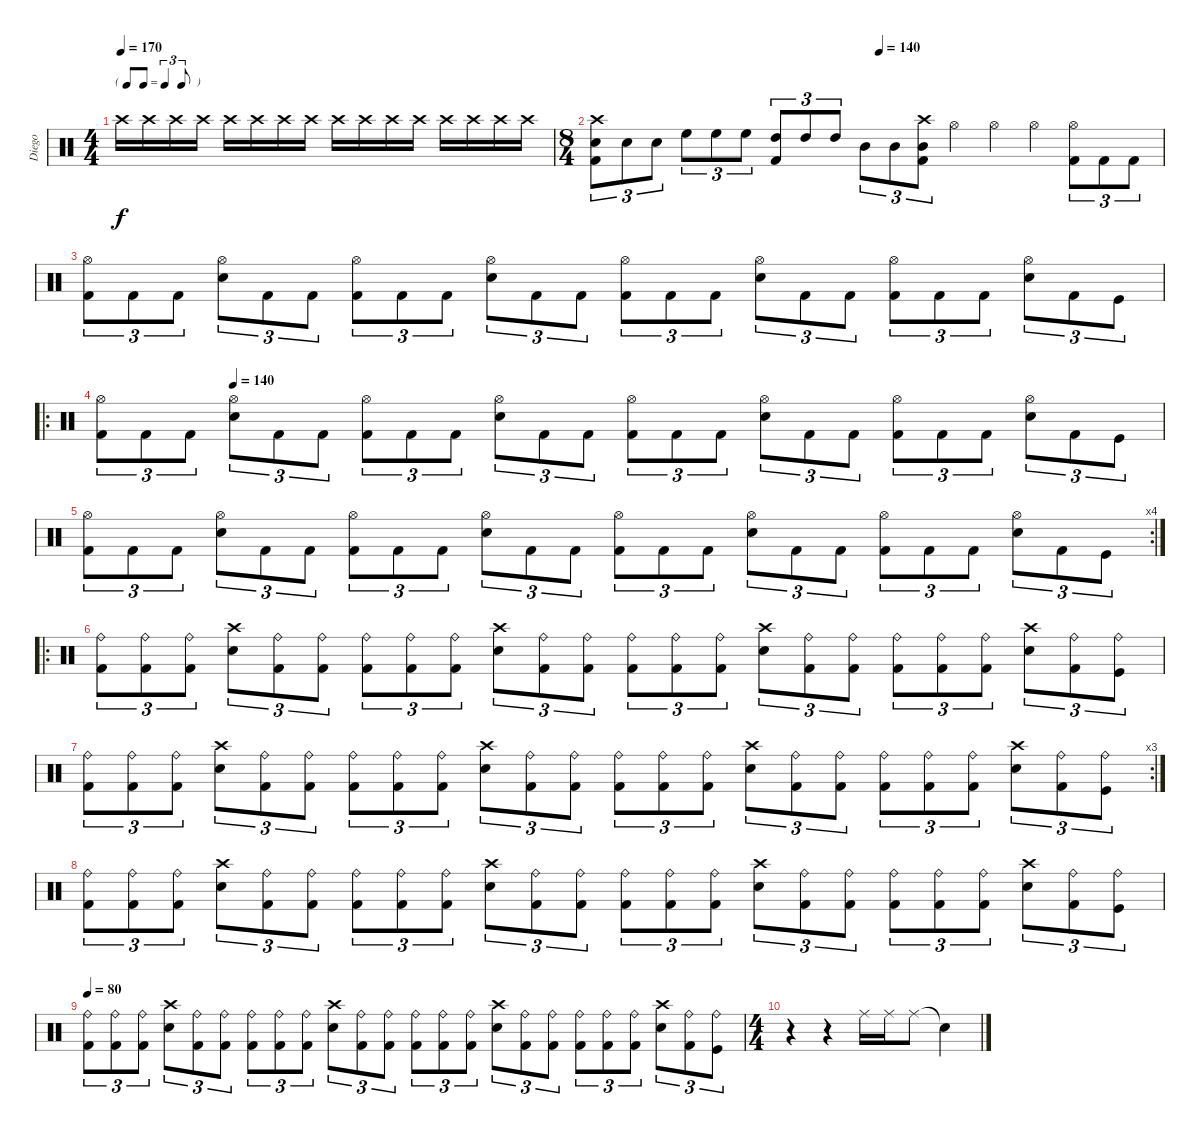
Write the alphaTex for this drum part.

\track ("Diego" "Diego") {instrument percussion}
\staff {score}
\articulation defaults
\ts (4 4)
\tf triplet8th
\tempo 170
\clef neutral
\ks c "Crash high (hit)".16{dy f} "Crash high (hit)".16 "Crash high (hit)".16 "Crash high (hit)".16 "Crash high (hit)".16 "Crash high (hit)".16 "Crash high (hit)".16 "Crash high (hit)".16 "Crash high (hit)".16 "Crash high (hit)".16 "Crash high (hit)".16 "Crash high (hit)".16 "Crash high (hit)".16 "Crash high (hit)".16 "Crash high (hit)".16 "Crash high (hit)".16
|
\ts (8 4)
\tempo (140 0.5)
("Crash high (hit)" "Snare (hit) 2" "Kick (hit) 2").8{tu (3 2)} "Snare (hit) 2".8{tu (3 2)} "Snare (hit) 2".8{tu (3 2)} "High Floor Tom (hit)".8{tu (3 2)} "High Floor Tom (hit)".8{tu (3 2)} "High Floor Tom (hit)".8{tu (3 2)} ("High Tom (hit)" "Kick (hit) 2").8{tu (3 2)} "High Tom (hit)".8{tu (3 2)} "High Tom (hit)".8{tu (3 2)} "Mid Tom (hit)".8{tu (3 2)} "Mid Tom (hit)".8{tu (3 2)} ("Crash high (hit)" "Mid Tom (hit)" "Kick (hit) 2").8{tu (3 2)} "Hi-Hat (open)".4 "Hi-Hat (open)".4 "Hi-Hat (open)".4 ("Hi-Hat (open)" "Kick (hit) 2").8{tu (3 2)} "Kick (hit) 2".8{tu (3 2)} "Kick (hit) 2".8{tu (3 2)} |
("Hi-Hat (open)" "Kick (hit) 2").8{tu (3 2)} "Kick (hit) 2".8{tu (3 2)} "Kick (hit) 2".8{tu (3 2)} ("Hi-Hat (open)" "Snare (hit) 2").8{tu (3 2)} "Kick (hit) 2".8{tu (3 2)} "Kick (hit) 2".8{tu (3 2)} ("Hi-Hat (open)" "Kick (hit) 2").8{tu (3 2)} "Kick (hit) 2".8{tu (3 2)} "Kick (hit) 2".8{tu (3 2)} ("Hi-Hat (open)" "Snare (hit) 2").8{tu (3 2)} "Kick (hit) 2".8{tu (3 2)} "Kick (hit) 2".8{tu (3 2)} ("Hi-Hat (open)" "Kick (hit) 2").8{tu (3 2)} "Kick (hit) 2".8{tu (3 2)} "Kick (hit) 2".8{tu (3 2)} ("Hi-Hat (open)" "Snare (hit) 2").8{tu (3 2)} "Kick (hit) 2".8{tu (3 2)} "Kick (hit) 2".8{tu (3 2)} ("Hi-Hat (open)" "Kick (hit) 2").8{tu (3 2)} "Kick (hit) 2".8{tu (3 2)} "Kick (hit) 2".8{tu (3 2)} ("Hi-Hat (open)" "Snare (hit) 2").8{tu (3 2)} "Kick (hit) 2".8{tu (3 2)} "Kick (hit)".8{tu (3 2)} |
\ro
\tempo (140 0.125)
("Hi-Hat (open)" "Kick (hit) 2").8{tu (3 2)} "Kick (hit) 2".8{tu (3 2)} "Kick (hit) 2".8{tu (3 2)} ("Hi-Hat (open)" "Snare (hit) 2").8{tu (3 2)} "Kick (hit) 2".8{tu (3 2)} "Kick (hit) 2".8{tu (3 2)} ("Hi-Hat (open)" "Kick (hit) 2").8{tu (3 2)} "Kick (hit) 2".8{tu (3 2)} "Kick (hit) 2".8{tu (3 2)} ("Hi-Hat (open)" "Snare (hit) 2").8{tu (3 2)} "Kick (hit) 2".8{tu (3 2)} "Kick (hit) 2".8{tu (3 2)} ("Hi-Hat (open)" "Kick (hit) 2").8{tu (3 2)} "Kick (hit) 2".8{tu (3 2)} "Kick (hit) 2".8{tu (3 2)} ("Hi-Hat (open)" "Snare (hit) 2").8{tu (3 2)} "Kick (hit) 2".8{tu (3 2)} "Kick (hit) 2".8{tu (3 2)} ("Hi-Hat (open)" "Kick (hit) 2").8{tu (3 2)} "Kick (hit) 2".8{tu (3 2)} "Kick (hit) 2".8{tu (3 2)} ("Hi-Hat (open)" "Snare (hit) 2").8{tu (3 2)} "Kick (hit) 2".8{tu (3 2)} "Kick (hit)".8{tu (3 2)} |
\rc 4
("Hi-Hat (open)" "Kick (hit) 2").8{tu (3 2)} "Kick (hit) 2".8{tu (3 2)} "Kick (hit) 2".8{tu (3 2)} ("Hi-Hat (open)" "Snare (hit) 2").8{tu (3 2)} "Kick (hit) 2".8{tu (3 2)} "Kick (hit) 2".8{tu (3 2)} ("Hi-Hat (open)" "Kick (hit) 2").8{tu (3 2)} "Kick (hit) 2".8{tu (3 2)} "Kick (hit) 2".8{tu (3 2)} ("Hi-Hat (open)" "Snare (hit) 2").8{tu (3 2)} "Kick (hit) 2".8{tu (3 2)} "Kick (hit) 2".8{tu (3 2)} ("Hi-Hat (open)" "Kick (hit) 2").8{tu (3 2)} "Kick (hit) 2".8{tu (3 2)} "Kick (hit) 2".8{tu (3 2)} ("Hi-Hat (open)" "Snare (hit) 2").8{tu (3 2)} "Kick (hit) 2".8{tu (3 2)} "Kick (hit) 2".8{tu (3 2)} ("Hi-Hat (open)" "Kick (hit) 2").8{tu (3 2)} "Kick (hit) 2".8{tu (3 2)} "Kick (hit) 2".8{tu (3 2)} ("Hi-Hat (open)" "Snare (hit) 2").8{tu (3 2)} "Kick (hit) 2".8{tu (3 2)} "Kick (hit)".8{tu (3 2)} |
\ro
("Ride (bell)" "Kick (hit) 2").8{tu (3 2)} ("Ride (bell)" "Kick (hit) 2").8{tu (3 2)} ("Ride (bell)" "Kick (hit) 2").8{tu (3 2)} ("Crash high (hit)" "Snare (hit) 2").8{tu (3 2)} ("Ride (bell)" "Kick (hit) 2").8{tu (3 2)} ("Ride (bell)" "Kick (hit) 2").8{tu (3 2)} ("Ride (bell)" "Kick (hit) 2").8{tu (3 2)} ("Ride (bell)" "Kick (hit) 2").8{tu (3 2)} ("Ride (bell)" "Kick (hit) 2").8{tu (3 2)} ("Crash high (hit)" "Snare (hit) 2").8{tu (3 2)} ("Ride (bell)" "Kick (hit) 2").8{tu (3 2)} ("Ride (bell)" "Kick (hit) 2").8{tu (3 2)} ("Ride (bell)" "Kick (hit) 2").8{tu (3 2)} ("Ride (bell)" "Kick (hit) 2").8{tu (3 2)} ("Ride (bell)" "Kick (hit) 2").8{tu (3 2)} ("Crash high (hit)" "Snare (hit) 2").8{tu (3 2)} ("Ride (bell)" "Kick (hit) 2").8{tu (3 2)} ("Ride (bell)" "Kick (hit) 2").8{tu (3 2)} ("Ride (bell)" "Kick (hit) 2").8{tu (3 2)} ("Ride (bell)" "Kick (hit) 2").8{tu (3 2)} ("Ride (bell)" "Kick (hit) 2").8{tu (3 2)} ("Crash high (hit)" "Snare (hit) 2").8{tu (3 2)} ("Ride (bell)" "Kick (hit) 2").8{tu (3 2)} ("Ride (bell)" "Kick (hit)").8{tu (3 2)} |
\rc 3
("Ride (bell)" "Kick (hit) 2").8{tu (3 2)} ("Ride (bell)" "Kick (hit) 2").8{tu (3 2)} ("Ride (bell)" "Kick (hit) 2").8{tu (3 2)} ("Crash high (hit)" "Snare (hit) 2").8{tu (3 2)} ("Ride (bell)" "Kick (hit) 2").8{tu (3 2)} ("Ride (bell)" "Kick (hit) 2").8{tu (3 2)} ("Ride (bell)" "Kick (hit) 2").8{tu (3 2)} ("Ride (bell)" "Kick (hit) 2").8{tu (3 2)} ("Ride (bell)" "Kick (hit) 2").8{tu (3 2)} ("Crash high (hit)" "Snare (hit) 2").8{tu (3 2)} ("Ride (bell)" "Kick (hit) 2").8{tu (3 2)} ("Ride (bell)" "Kick (hit) 2").8{tu (3 2)} ("Ride (bell)" "Kick (hit) 2").8{tu (3 2)} ("Ride (bell)" "Kick (hit) 2").8{tu (3 2)} ("Ride (bell)" "Kick (hit) 2").8{tu (3 2)} ("Crash high (hit)" "Snare (hit) 2").8{tu (3 2)} ("Ride (bell)" "Kick (hit) 2").8{tu (3 2)} ("Ride (bell)" "Kick (hit) 2").8{tu (3 2)} ("Ride (bell)" "Kick (hit) 2").8{tu (3 2)} ("Ride (bell)" "Kick (hit) 2").8{tu (3 2)} ("Ride (bell)" "Kick (hit) 2").8{tu (3 2)} ("Crash high (hit)" "Snare (hit) 2").8{tu (3 2)} ("Ride (bell)" "Kick (hit) 2").8{tu (3 2)} ("Ride (bell)" "Kick (hit)").8{tu (3 2)} |
("Ride (bell)" "Kick (hit) 2").8{tu (3 2)} ("Ride (bell)" "Kick (hit) 2").8{tu (3 2)} ("Ride (bell)" "Kick (hit) 2").8{tu (3 2)} ("Crash high (hit)" "Snare (hit) 2").8{tu (3 2)} ("Ride (bell)" "Kick (hit) 2").8{tu (3 2)} ("Ride (bell)" "Kick (hit) 2").8{tu (3 2)} ("Ride (bell)" "Kick (hit) 2").8{tu (3 2)} ("Ride (bell)" "Kick (hit) 2").8{tu (3 2)} ("Ride (bell)" "Kick (hit) 2").8{tu (3 2)} ("Crash high (hit)" "Snare (hit) 2").8{tu (3 2)} ("Ride (bell)" "Kick (hit) 2").8{tu (3 2)} ("Ride (bell)" "Kick (hit) 2").8{tu (3 2)} ("Ride (bell)" "Kick (hit) 2").8{tu (3 2)} ("Ride (bell)" "Kick (hit) 2").8{tu (3 2)} ("Ride (bell)" "Kick (hit) 2").8{tu (3 2)} ("Crash high (hit)" "Snare (hit) 2").8{tu (3 2)} ("Ride (bell)" "Kick (hit) 2").8{tu (3 2)} ("Ride (bell)" "Kick (hit) 2").8{tu (3 2)} ("Ride (bell)" "Kick (hit) 2").8{tu (3 2)} ("Ride (bell)" "Kick (hit) 2").8{tu (3 2)} ("Ride (bell)" "Kick (hit) 2").8{tu (3 2)} ("Crash high (hit)" "Snare (hit) 2").8{tu (3 2)} ("Ride (bell)" "Kick (hit) 2").8{tu (3 2)} ("Ride (bell)" "Kick (hit)").8{tu (3 2)} |
\tempo 80
("Ride (bell)" "Kick (hit) 2").8{tu (3 2)} ("Ride (bell)" "Kick (hit) 2").8{tu (3 2)} ("Ride (bell)" "Kick (hit) 2").8{tu (3 2)} ("Crash high (hit)" "Snare (hit) 2").8{tu (3 2)} ("Ride (bell)" "Kick (hit) 2").8{tu (3 2)} ("Ride (bell)" "Kick (hit) 2").8{tu (3 2)} ("Ride (bell)" "Kick (hit) 2").8{tu (3 2)} ("Ride (bell)" "Kick (hit) 2").8{tu (3 2)} ("Ride (bell)" "Kick (hit) 2").8{tu (3 2)} ("Crash high (hit)" "Snare (hit) 2").8{tu (3 2)} ("Ride (bell)" "Kick (hit) 2").8{tu (3 2)} ("Ride (bell)" "Kick (hit) 2").8{tu (3 2)} ("Ride (bell)" "Kick (hit) 2").8{tu (3 2)} ("Ride (bell)" "Kick (hit) 2").8{tu (3 2)} ("Ride (bell)" "Kick (hit) 2").8{tu (3 2)} ("Crash high (hit)" "Snare (hit) 2").8{tu (3 2)} ("Ride (bell)" "Kick (hit) 2").8{tu (3 2)} ("Ride (bell)" "Kick (hit) 2").8{tu (3 2)} ("Ride (bell)" "Kick (hit) 2").8{tu (3 2)} ("Ride (bell)" "Kick (hit) 2").8{tu (3 2)} ("Ride (bell)" "Kick (hit) 2").8{tu (3 2)} ("Crash high (hit)" "Snare (hit) 2").8{tu (3 2)} ("Ride (bell)" "Kick (hit) 2").8{tu (3 2)} ("Ride (bell)" "Kick (hit)").8{tu (3 2)} |
\ts (4 4)
r.4 r.4 "Ride (middle)".16 "Ride (middle)".16 "Ride (middle)".8 "Snare (hit)"{t}.4
